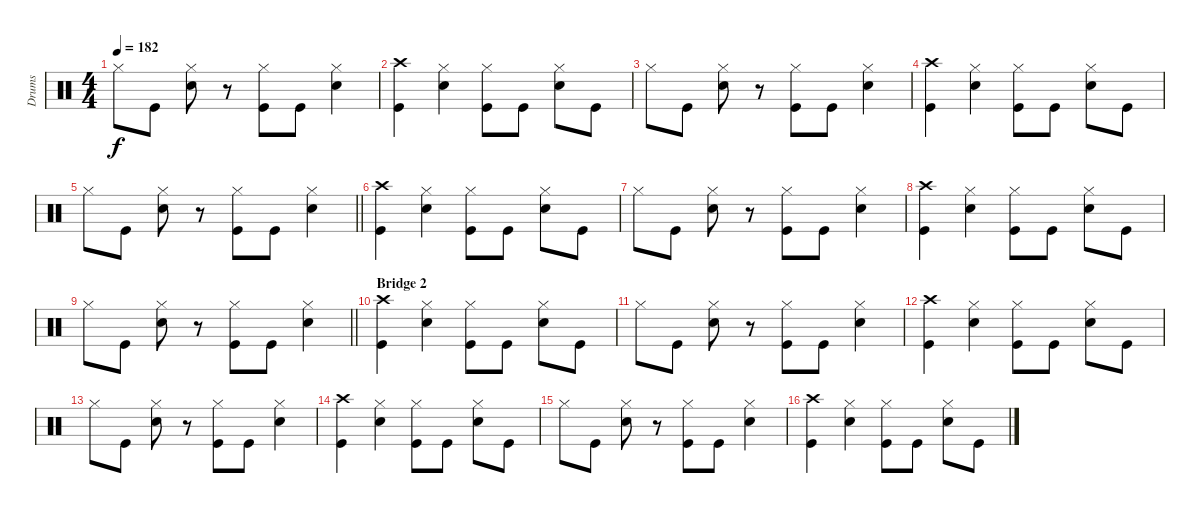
\track ("Drums" "Drums") {instrument percussion}
\staff {score}
\articulation defaults
\ts (4 4)
\tempo 182
\clef neutral
\ks c "Hi-Hat (closed)".8{dy f} "Kick (hit)".8
("Hi-Hat (closed)" "Snare (hit) 2").8 r.8 ("Hi-Hat (closed)" "Kick (hit)").8 "Kick (hit)".8 ("Hi-Hat (closed)" "Snare (hit) 2").4 |
("Crash high (hit)" "Kick (hit)").4 ("Hi-Hat (closed)" "Snare (hit) 2").4 ("Hi-Hat (closed)" "Kick (hit)").8 "Kick (hit)".8 ("Hi-Hat (closed)" "Snare (hit) 2").8 "Kick (hit)".8 |
"Hi-Hat (closed)".8 "Kick (hit)".8 ("Hi-Hat (closed)" "Snare (hit) 2").8 r.8 ("Hi-Hat (closed)" "Kick (hit)").8 "Kick (hit)".8 ("Hi-Hat (closed)" "Snare (hit) 2").4 |
("Crash high (hit)" "Kick (hit)").4 ("Hi-Hat (closed)" "Snare (hit) 2").4 ("Hi-Hat (closed)" "Kick (hit)").8 "Kick (hit)".8 ("Hi-Hat (closed)" "Snare (hit) 2").8 "Kick (hit)".8 |
\barLineRight lightlight "Hi-Hat (closed)".8 "Kick (hit)".8
("Hi-Hat (closed)" "Snare (hit) 2").8 r.8 ("Hi-Hat (closed)" "Kick (hit)").8 "Kick (hit)".8 ("Hi-Hat (closed)" "Snare (hit) 2").4 |
("Crash high (hit)" "Kick (hit)").4 ("Hi-Hat (closed)" "Snare (hit) 2").4 ("Hi-Hat (closed)" "Kick (hit)").8 "Kick (hit)".8 ("Hi-Hat (closed)" "Snare (hit) 2").8 "Kick (hit)".8 |
"Hi-Hat (closed)".8 "Kick (hit)".8 ("Hi-Hat (closed)" "Snare (hit) 2").8 r.8 ("Hi-Hat (closed)" "Kick (hit)").8 "Kick (hit)".8 ("Hi-Hat (closed)" "Snare (hit) 2").4 |
("Crash high (hit)" "Kick (hit)").4 ("Hi-Hat (closed)" "Snare (hit) 2").4 ("Hi-Hat (closed)" "Kick (hit)").8 "Kick (hit)".8 ("Hi-Hat (closed)" "Snare (hit) 2").8 "Kick (hit)".8 |
\barLineRight lightlight "Hi-Hat (closed)".8 "Kick (hit)".8
("Hi-Hat (closed)" "Snare (hit) 2").8 r.8 ("Hi-Hat (closed)" "Kick (hit)").8 "Kick (hit)".8 ("Hi-Hat (closed)" "Snare (hit) 2").4 |
\section ("" "Bridge 2")
("Crash high (hit)" "Kick (hit)").4 ("Hi-Hat (closed)" "Snare (hit) 2").4 ("Hi-Hat (closed)" "Kick (hit)").8 "Kick (hit)".8 ("Hi-Hat (closed)" "Snare (hit) 2").8 "Kick (hit)".8 |
"Hi-Hat (closed)".8 "Kick (hit)".8 ("Hi-Hat (closed)" "Snare (hit) 2").8 r.8 ("Hi-Hat (closed)" "Kick (hit)").8 "Kick (hit)".8 ("Hi-Hat (closed)" "Snare (hit) 2").4 |
("Crash high (hit)" "Kick (hit)").4 ("Hi-Hat (closed)" "Snare (hit) 2").4 ("Hi-Hat (closed)" "Kick (hit)").8 "Kick (hit)".8 ("Hi-Hat (closed)" "Snare (hit) 2").8 "Kick (hit)".8 |
"Hi-Hat (closed)".8 "Kick (hit)".8 ("Hi-Hat (closed)" "Snare (hit) 2").8 r.8 ("Hi-Hat (closed)" "Kick (hit)").8 "Kick (hit)".8 ("Hi-Hat (closed)" "Snare (hit) 2").4 |
("Crash high (hit)" "Kick (hit)").4 ("Hi-Hat (closed)" "Snare (hit) 2").4 ("Hi-Hat (closed)" "Kick (hit)").8 "Kick (hit)".8 ("Hi-Hat (closed)" "Snare (hit) 2").8 "Kick (hit)".8 |
"Hi-Hat (closed)".8 "Kick (hit)".8 ("Hi-Hat (closed)" "Snare (hit) 2").8 r.8 ("Hi-Hat (closed)" "Kick (hit)").8 "Kick (hit)".8 ("Hi-Hat (closed)" "Snare (hit) 2").4 |
("Crash high (hit)" "Kick (hit)").4 ("Hi-Hat (closed)" "Snare (hit) 2").4 ("Hi-Hat (closed)" "Kick (hit)").8 "Kick (hit)".8 ("Hi-Hat (closed)" "Snare (hit) 2").8 "Kick (hit)".8
